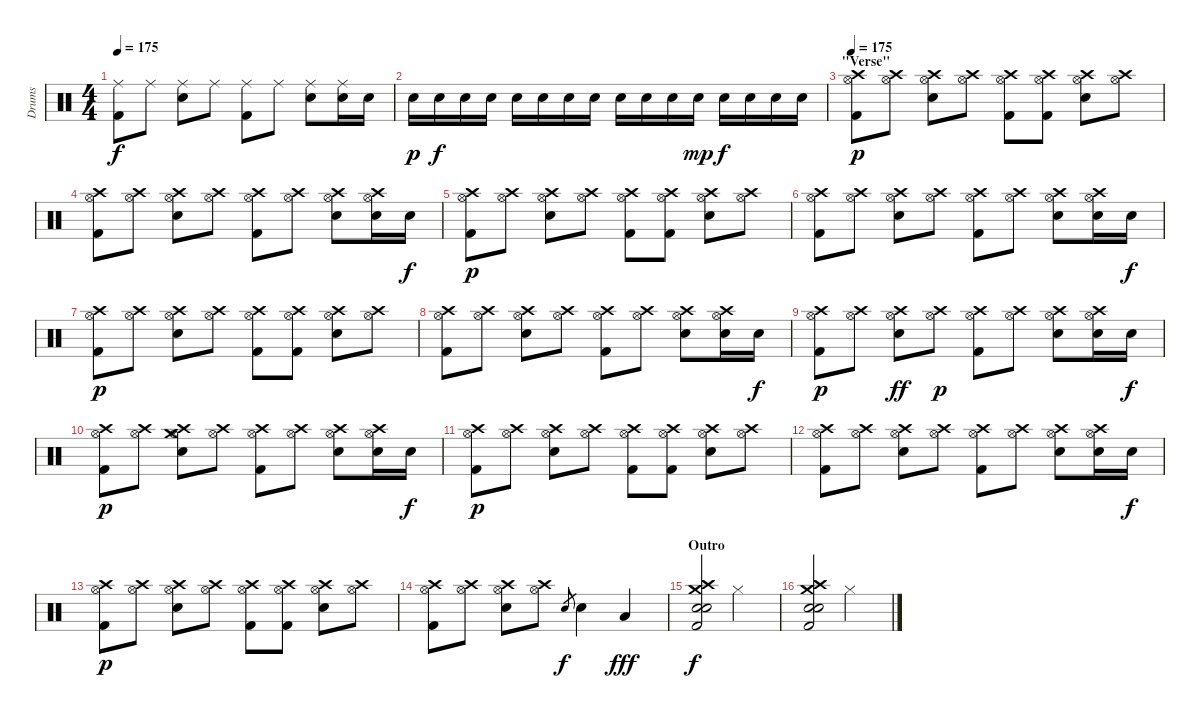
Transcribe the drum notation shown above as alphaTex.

\track ("Drums" "Drums") {instrument percussion}
\staff {score}
\articulation defaults
\ts (4 4)
\tempo 175
\clef neutral
\ks c
("Ride (middle)" "Kick (hit) 2").8{dy f} "Ride (middle)".8 ("Ride (middle)" "Electric Snare (hit)").8 "Ride (middle)".8 ("Ride (middle)" "Kick (hit) 2").8 "Ride (middle)".8 ("Ride (middle)" "Electric Snare (hit)").8 ("Ride (middle)" "Electric Snare (hit)").16 "Electric Snare (hit)".16 |
"Electric Snare (hit)".16{dy p} "Electric Snare (hit)".16{dy f} "Electric Snare (hit)".16 "Electric Snare (hit)".16 "Electric Snare (hit)".16 "Electric Snare (hit)".16 "Electric Snare (hit)".16 "Electric Snare (hit)".16 "Electric Snare (hit)".16 "Electric Snare (hit)".16 "Electric Snare (hit)".16 "Electric Snare (hit)".16{dy mp} "Electric Snare (hit)".16{dy f} "Electric Snare (hit)".16 "Electric Snare (hit)".16 "Electric Snare (hit)".16 |
\section ("" "\"Verse\"")
\tempo 175
("Hi-Hat (open)" "Crash high (hit)" "Kick (hit) 2").8{dy p} ("Hi-Hat (open)" "Crash high (hit)").8 ("Hi-Hat (open)" "Crash high (hit)" "Electric Snare (hit)").8 ("Hi-Hat (open)" "Crash high (hit)").8 ("Hi-Hat (open)" "Crash high (hit)" "Kick (hit) 2").8 ("Hi-Hat (open)" "Crash high (hit)" "Kick (hit) 2").8 ("Hi-Hat (open)" "Crash high (hit)" "Electric Snare (hit)").8 ("Hi-Hat (open)" "Crash high (hit)").8 |
("Hi-Hat (open)" "Crash high (hit)" "Kick (hit) 2").8 ("Hi-Hat (open)" "Crash high (hit)").8 ("Hi-Hat (open)" "Crash high (hit)" "Electric Snare (hit)").8 ("Hi-Hat (open)" "Crash high (hit)").8 ("Hi-Hat (open)" "Crash high (hit)" "Kick (hit) 2").8 ("Hi-Hat (open)" "Crash high (hit)").8 ("Hi-Hat (open)" "Crash high (hit)" "Electric Snare (hit)").8 ("Hi-Hat (open)" "Crash high (hit)" "Electric Snare (hit)").16 "Electric Snare (hit)".16{dy f} |
("Hi-Hat (open)" "Crash high (hit)" "Kick (hit) 2").8{dy p} ("Hi-Hat (open)" "Crash high (hit)").8 ("Hi-Hat (open)" "Crash high (hit)" "Electric Snare (hit)").8 ("Hi-Hat (open)" "Crash high (hit)").8 ("Hi-Hat (open)" "Crash high (hit)" "Kick (hit) 2").8 ("Hi-Hat (open)" "Crash high (hit)" "Kick (hit) 2").8 ("Hi-Hat (open)" "Crash high (hit)" "Electric Snare (hit)").8 ("Hi-Hat (open)" "Crash high (hit)").8 |
("Hi-Hat (open)" "Crash high (hit)" "Kick (hit) 2").8 ("Hi-Hat (open)" "Crash high (hit)").8 ("Hi-Hat (open)" "Crash high (hit)" "Electric Snare (hit)").8 ("Hi-Hat (open)" "Crash high (hit)").8 ("Hi-Hat (open)" "Crash high (hit)" "Kick (hit) 2").8 ("Hi-Hat (open)" "Crash high (hit)").8 ("Hi-Hat (open)" "Crash high (hit)" "Electric Snare (hit)").8 ("Hi-Hat (open)" "Crash high (hit)" "Electric Snare (hit)").16 "Electric Snare (hit)".16{dy f} |
("Hi-Hat (open)" "Crash high (hit)" "Kick (hit) 2").8{dy p} ("Hi-Hat (open)" "Crash high (hit)").8 ("Hi-Hat (open)" "Crash high (hit)" "Electric Snare (hit)").8 ("Hi-Hat (open)" "Crash high (hit)").8 ("Hi-Hat (open)" "Crash high (hit)" "Kick (hit) 2").8 ("Hi-Hat (open)" "Crash high (hit)" "Kick (hit) 2").8 ("Hi-Hat (open)" "Crash high (hit)" "Electric Snare (hit)").8 ("Hi-Hat (open)" "Crash high (hit)").8 |
("Hi-Hat (open)" "Crash high (hit)" "Kick (hit) 2").8 ("Hi-Hat (open)" "Crash high (hit)").8 ("Hi-Hat (open)" "Crash high (hit)" "Electric Snare (hit)").8 ("Hi-Hat (open)" "Crash high (hit)").8 ("Hi-Hat (open)" "Crash high (hit)" "Kick (hit) 2").8 ("Hi-Hat (open)" "Crash high (hit)").8 ("Hi-Hat (open)" "Crash high (hit)" "Electric Snare (hit)").8 ("Hi-Hat (open)" "Crash high (hit)" "Electric Snare (hit)").16 "Electric Snare (hit)".16{dy f} |
("Hi-Hat (open)" "Crash high (hit)" "Kick (hit) 2").8{dy p} ("Hi-Hat (open)" "Crash high (hit)").8 ("Hi-Hat (open)" "Crash high (hit)" "Electric Snare (hit)").8{dy ff} ("Hi-Hat (open)" "Crash high (hit)").8{dy p} ("Hi-Hat (open)" "Crash high (hit)" "Kick (hit) 2").8 ("Hi-Hat (open)" "Crash high (hit)").8 ("Hi-Hat (open)" "Crash high (hit)" "Electric Snare (hit)").8 ("Hi-Hat (open)" "Crash high (hit)" "Electric Snare (hit)").16 "Electric Snare (hit)".16{dy f} |
("Hi-Hat (open)" "Crash high (hit)" "Kick (hit) 2").8{dy p} ("Hi-Hat (open)" "Crash high (hit)").8 ("Hi-Hat (open)" "Crash high (hit)" "Crash medium (hit)" "Electric Snare (hit)").8 ("Hi-Hat (open)" "Crash high (hit)").8 ("Hi-Hat (open)" "Crash high (hit)" "Kick (hit) 2").8 ("Hi-Hat (open)" "Crash high (hit)").8 ("Hi-Hat (open)" "Crash high (hit)" "Electric Snare (hit)").8 ("Hi-Hat (open)" "Crash high (hit)" "Electric Snare (hit)").16 "Electric Snare (hit)".16{dy f} |
("Hi-Hat (open)" "Crash high (hit)" "Kick (hit) 2").8{dy p} ("Hi-Hat (open)" "Crash high (hit)").8 ("Hi-Hat (open)" "Crash high (hit)" "Electric Snare (hit)").8 ("Hi-Hat (open)" "Crash high (hit)").8 ("Hi-Hat (open)" "Crash high (hit)" "Kick (hit) 2").8 ("Hi-Hat (open)" "Crash high (hit)" "Kick (hit) 2").8 ("Hi-Hat (open)" "Crash high (hit)" "Electric Snare (hit)").8 ("Hi-Hat (open)" "Crash high (hit)").8 |
("Hi-Hat (open)" "Crash high (hit)" "Kick (hit) 2").8 ("Hi-Hat (open)" "Crash high (hit)").8 ("Hi-Hat (open)" "Crash high (hit)" "Electric Snare (hit)").8 ("Hi-Hat (open)" "Crash high (hit)").8 ("Hi-Hat (open)" "Crash high (hit)" "Kick (hit) 2").8 ("Hi-Hat (open)" "Crash high (hit)").8 ("Hi-Hat (open)" "Crash high (hit)" "Electric Snare (hit)").8 ("Hi-Hat (open)" "Crash high (hit)" "Electric Snare (hit)").16 "Electric Snare (hit)".16{dy f} |
("Hi-Hat (open)" "Crash high (hit)" "Kick (hit) 2").8{dy p} ("Hi-Hat (open)" "Crash high (hit)").8 ("Hi-Hat (open)" "Crash high (hit)" "Electric Snare (hit)").8 ("Hi-Hat (open)" "Crash high (hit)").8 ("Hi-Hat (open)" "Crash high (hit)" "Kick (hit) 2").8 ("Hi-Hat (open)" "Crash high (hit)" "Kick (hit) 2").8 ("Hi-Hat (open)" "Crash high (hit)" "Electric Snare (hit)").8 ("Hi-Hat (open)" "Crash high (hit)").8 |
("Hi-Hat (open)" "Crash high (hit)" "Kick (hit) 2").8 ("Hi-Hat (open)" "Crash high (hit)").8 ("Hi-Hat (open)" "Crash high (hit)" "Electric Snare (hit)").8 ("Hi-Hat (open)" "Crash high (hit)").8 "Snare (hit) 2".8{gr dy f} "Electric Snare (hit)".4 "Low Tom (hit)".4{dy fff} |
\section ("" "Outro")
("Crash high (hit)" "Crash medium (hit)" "Electric Snare (hit)" "Snare (hit) 2" "Kick (hit) 2").2{dy f} "Hi-Hat (closed)".2 |
("Crash high (hit)" "Crash medium (hit)" "Electric Snare (hit)" "Snare (hit) 2" "Kick (hit) 2").2 "Hi-Hat (closed)".2
